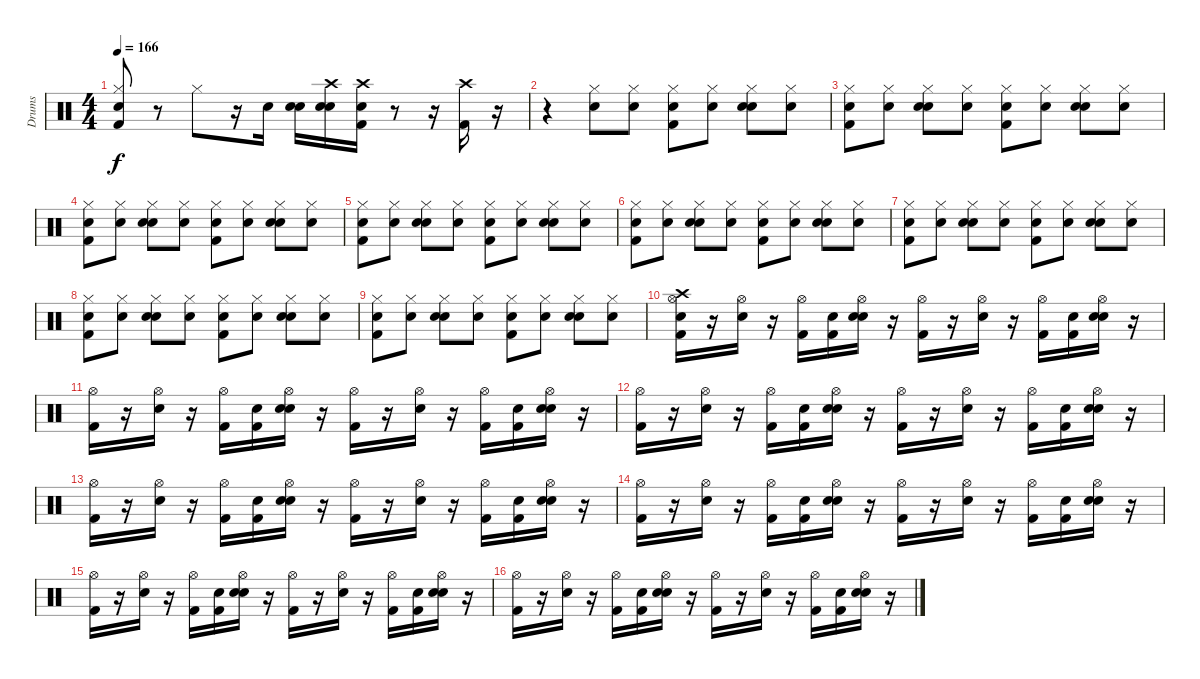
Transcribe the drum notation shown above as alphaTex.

\track ("Drums" "Drums") {instrument percussion}
\staff {score}
\articulation defaults
\ts (4 4)
\tempo 166
\clef neutral
\ks c
("Snare (hit)" "Hi-Hat (closed)" "Kick (hit) 2").8{dy f} r.8 "Hi-Hat (closed)".8 r.16 "Electric Snare (hit)".16 ("Snare (hit)" "Electric Snare (hit)").16 ("Snare (hit)" "Crash high (hit)" "Electric Snare (hit)").16 ("Snare (hit)" "Crash high (hit)" "Kick (hit) 2").16 r.8 r.16 ("Kick (hit) 2" "Crash high (hit)").16 r.16 |
r.4 ("Hi-Hat (closed)" "Electric Snare (hit)").8 ("Snare (hit)" "Hi-Hat (closed)").8 ("Snare (hit)" "Hi-Hat (closed)" "Kick (hit) 2").8 ("Snare (hit)" "Hi-Hat (closed)").8 ("Snare (hit)" "Hi-Hat (closed)" "Electric Snare (hit)").8 ("Snare (hit)" "Hi-Hat (closed)").8 |
("Snare (hit)" "Hi-Hat (closed)" "Kick (hit) 2").8 ("Snare (hit)" "Hi-Hat (closed)").8 ("Snare (hit)" "Hi-Hat (closed)" "Electric Snare (hit)").8 ("Snare (hit)" "Hi-Hat (closed)").8 ("Snare (hit)" "Hi-Hat (closed)" "Kick (hit) 2").8 ("Snare (hit)" "Hi-Hat (closed)").8 ("Snare (hit)" "Hi-Hat (closed)" "Electric Snare (hit)").8 ("Snare (hit)" "Hi-Hat (closed)").8 |
("Snare (hit)" "Hi-Hat (closed)" "Kick (hit) 2").8 ("Snare (hit)" "Hi-Hat (closed)").8 ("Snare (hit)" "Hi-Hat (closed)" "Electric Snare (hit)").8 ("Snare (hit)" "Hi-Hat (closed)").8 ("Snare (hit)" "Hi-Hat (closed)" "Kick (hit) 2").8 ("Snare (hit)" "Hi-Hat (closed)").8 ("Snare (hit)" "Hi-Hat (closed)" "Electric Snare (hit)").8 ("Snare (hit)" "Hi-Hat (closed)").8 |
("Snare (hit)" "Hi-Hat (closed)" "Kick (hit) 2").8 ("Snare (hit)" "Hi-Hat (closed)").8 ("Snare (hit)" "Hi-Hat (closed)" "Electric Snare (hit)").8 ("Snare (hit)" "Hi-Hat (closed)").8 ("Snare (hit)" "Hi-Hat (closed)" "Kick (hit) 2").8 ("Snare (hit)" "Hi-Hat (closed)").8 ("Snare (hit)" "Hi-Hat (closed)" "Electric Snare (hit)").8 ("Snare (hit)" "Hi-Hat (closed)").8 |
("Snare (hit)" "Hi-Hat (closed)" "Kick (hit) 2").8 ("Snare (hit)" "Hi-Hat (closed)").8 ("Snare (hit)" "Hi-Hat (closed)" "Electric Snare (hit)").8 ("Snare (hit)" "Hi-Hat (closed)").8 ("Snare (hit)" "Hi-Hat (closed)" "Kick (hit) 2").8 ("Snare (hit)" "Hi-Hat (closed)").8 ("Snare (hit)" "Hi-Hat (closed)" "Electric Snare (hit)").8 ("Snare (hit)" "Hi-Hat (closed)").8 |
("Snare (hit)" "Hi-Hat (closed)" "Kick (hit) 2").8 ("Snare (hit)" "Hi-Hat (closed)").8 ("Snare (hit)" "Hi-Hat (closed)" "Electric Snare (hit)").8 ("Snare (hit)" "Hi-Hat (closed)").8 ("Snare (hit)" "Hi-Hat (closed)" "Kick (hit) 2").8 ("Snare (hit)" "Hi-Hat (closed)").8 ("Snare (hit)" "Hi-Hat (closed)" "Electric Snare (hit)").8 ("Snare (hit)" "Hi-Hat (closed)").8 |
("Snare (hit)" "Hi-Hat (closed)" "Kick (hit) 2").8 ("Snare (hit)" "Hi-Hat (closed)").8 ("Snare (hit)" "Hi-Hat (closed)" "Electric Snare (hit)").8 ("Snare (hit)" "Hi-Hat (closed)").8 ("Snare (hit)" "Hi-Hat (closed)" "Kick (hit) 2").8 ("Snare (hit)" "Hi-Hat (closed)").8 ("Snare (hit)" "Hi-Hat (closed)" "Electric Snare (hit)").8 ("Snare (hit)" "Hi-Hat (closed)").8 |
("Snare (hit)" "Hi-Hat (closed)" "Kick (hit) 2").8 ("Snare (hit)" "Hi-Hat (closed)").8 ("Snare (hit)" "Hi-Hat (closed)" "Electric Snare (hit)").8 ("Snare (hit)" "Hi-Hat (closed)").8 ("Snare (hit)" "Hi-Hat (closed)" "Kick (hit) 2").8 ("Snare (hit)" "Hi-Hat (closed)").8 ("Snare (hit)" "Hi-Hat (closed)" "Electric Snare (hit)").8 ("Snare (hit)" "Hi-Hat (closed)").8 |
("Snare (hit)" "Crash high (hit)" "Hi-Hat (open)" "Kick (hit) 2").16 r.16 ("Hi-Hat (open)" "Electric Snare (hit)").16 r.16 ("Hi-Hat (open)" "Kick (hit) 2").16 ("Snare (hit)" "Kick (hit) 2").16 ("Snare (hit)" "Hi-Hat (open)" "Electric Snare (hit)").16 r.16 ("Kick (hit) 2" "Hi-Hat (open)").16 r.16 ("Hi-Hat (open)" "Electric Snare (hit)").16 r.16 ("Hi-Hat (open)" "Kick (hit) 2").16 ("Snare (hit)" "Kick (hit) 2").16 ("Snare (hit)" "Hi-Hat (open)" "Electric Snare (hit)").16 r.16 |
("Hi-Hat (open)" "Kick (hit) 2").16 r.16 ("Hi-Hat (open)" "Electric Snare (hit)").16 r.16 ("Hi-Hat (open)" "Kick (hit) 2").16 ("Snare (hit)" "Kick (hit) 2").16 ("Snare (hit)" "Hi-Hat (open)" "Electric Snare (hit)").16 r.16 ("Kick (hit) 2" "Hi-Hat (open)").16 r.16 ("Hi-Hat (open)" "Electric Snare (hit)").16 r.16 ("Hi-Hat (open)" "Kick (hit) 2").16 ("Snare (hit)" "Kick (hit) 2").16 ("Snare (hit)" "Hi-Hat (open)" "Electric Snare (hit)").16 r.16 |
("Hi-Hat (open)" "Kick (hit) 2").16 r.16 ("Hi-Hat (open)" "Electric Snare (hit)").16 r.16 ("Hi-Hat (open)" "Kick (hit) 2").16 ("Snare (hit)" "Kick (hit) 2").16 ("Snare (hit)" "Hi-Hat (open)" "Electric Snare (hit)").16 r.16 ("Kick (hit) 2" "Hi-Hat (open)").16 r.16 ("Hi-Hat (open)" "Electric Snare (hit)").16 r.16 ("Hi-Hat (open)" "Kick (hit) 2").16 ("Snare (hit)" "Kick (hit) 2").16 ("Snare (hit)" "Hi-Hat (open)" "Electric Snare (hit)").16 r.16 |
("Hi-Hat (open)" "Kick (hit) 2").16 r.16 ("Hi-Hat (open)" "Electric Snare (hit)").16 r.16 ("Hi-Hat (open)" "Kick (hit) 2").16 ("Snare (hit)" "Kick (hit) 2").16 ("Snare (hit)" "Hi-Hat (open)" "Electric Snare (hit)").16 r.16 ("Kick (hit) 2" "Hi-Hat (open)").16 r.16 ("Hi-Hat (open)" "Electric Snare (hit)").16 r.16 ("Hi-Hat (open)" "Kick (hit) 2").16 ("Snare (hit)" "Kick (hit) 2").16 ("Snare (hit)" "Hi-Hat (open)" "Electric Snare (hit)").16 r.16 |
("Hi-Hat (open)" "Kick (hit) 2").16 r.16 ("Hi-Hat (open)" "Electric Snare (hit)").16 r.16 ("Hi-Hat (open)" "Kick (hit) 2").16 ("Snare (hit)" "Kick (hit) 2").16 ("Snare (hit)" "Hi-Hat (open)" "Electric Snare (hit)").16 r.16 ("Kick (hit) 2" "Hi-Hat (open)").16 r.16 ("Hi-Hat (open)" "Electric Snare (hit)").16 r.16 ("Hi-Hat (open)" "Kick (hit) 2").16 ("Snare (hit)" "Kick (hit) 2").16 ("Snare (hit)" "Hi-Hat (open)" "Electric Snare (hit)").16 r.16 |
("Hi-Hat (open)" "Kick (hit) 2").16 r.16 ("Hi-Hat (open)" "Electric Snare (hit)").16 r.16 ("Hi-Hat (open)" "Kick (hit) 2").16 ("Snare (hit)" "Kick (hit) 2").16 ("Snare (hit)" "Hi-Hat (open)" "Electric Snare (hit)").16 r.16 ("Kick (hit) 2" "Hi-Hat (open)").16 r.16 ("Hi-Hat (open)" "Electric Snare (hit)").16 r.16 ("Hi-Hat (open)" "Kick (hit) 2").16 ("Snare (hit)" "Kick (hit) 2").16 ("Snare (hit)" "Hi-Hat (open)" "Electric Snare (hit)").16 r.16 |
("Hi-Hat (open)" "Kick (hit) 2").16 r.16 ("Hi-Hat (open)" "Electric Snare (hit)").16 r.16 ("Hi-Hat (open)" "Kick (hit) 2").16 ("Snare (hit)" "Kick (hit) 2").16 ("Snare (hit)" "Hi-Hat (open)" "Electric Snare (hit)").16 r.16 ("Kick (hit) 2" "Hi-Hat (open)").16 r.16 ("Hi-Hat (open)" "Electric Snare (hit)").16 r.16 ("Hi-Hat (open)" "Kick (hit) 2").16 ("Snare (hit)" "Kick (hit) 2").16 ("Snare (hit)" "Hi-Hat (open)" "Electric Snare (hit)").16 r.16
